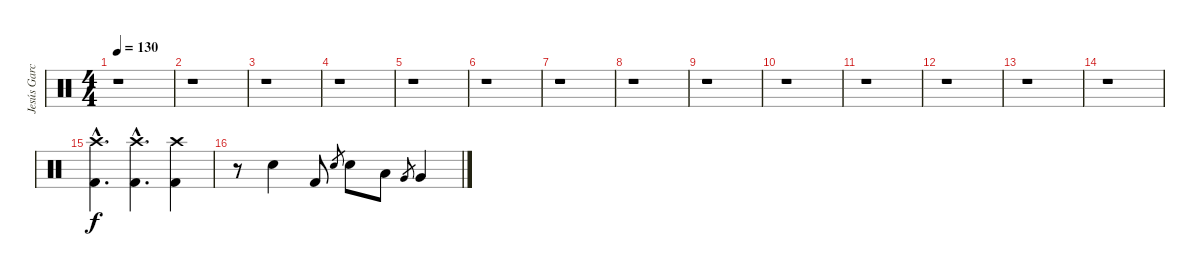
\track ("Jesús García (batería)" "Jesús Garc") {instrument percussion}
\staff {score}
\articulation defaults
\ts (4 4)
\tempo 130
\clef neutral
\ks c
r.1{dy f} |
r.1 |
r.1 |
r.1 |
r.1 |
r.1 |
r.1 |
r.1 |
r.1 |
r.1 |
r.1 |
r.1 |
r.1 |
r.1 |
("Kick (hit) 2"{hac} "Crash high (hit)"{hac}).4{d} ("Kick (hit) 2"{hac} "Crash high (hit)"{hac}).4{d} ("Kick (hit) 2" "Crash high (hit)").4 |
r.8 "Electric Snare (hit)".4 "Kick (hit) 2".8 "Electric Snare (hit)".8{gr} "Electric Snare (hit)".8 "Low Tom (hit)".8 "Very Low Tom (hit)".8{gr} "Very Low Tom (hit)".4
